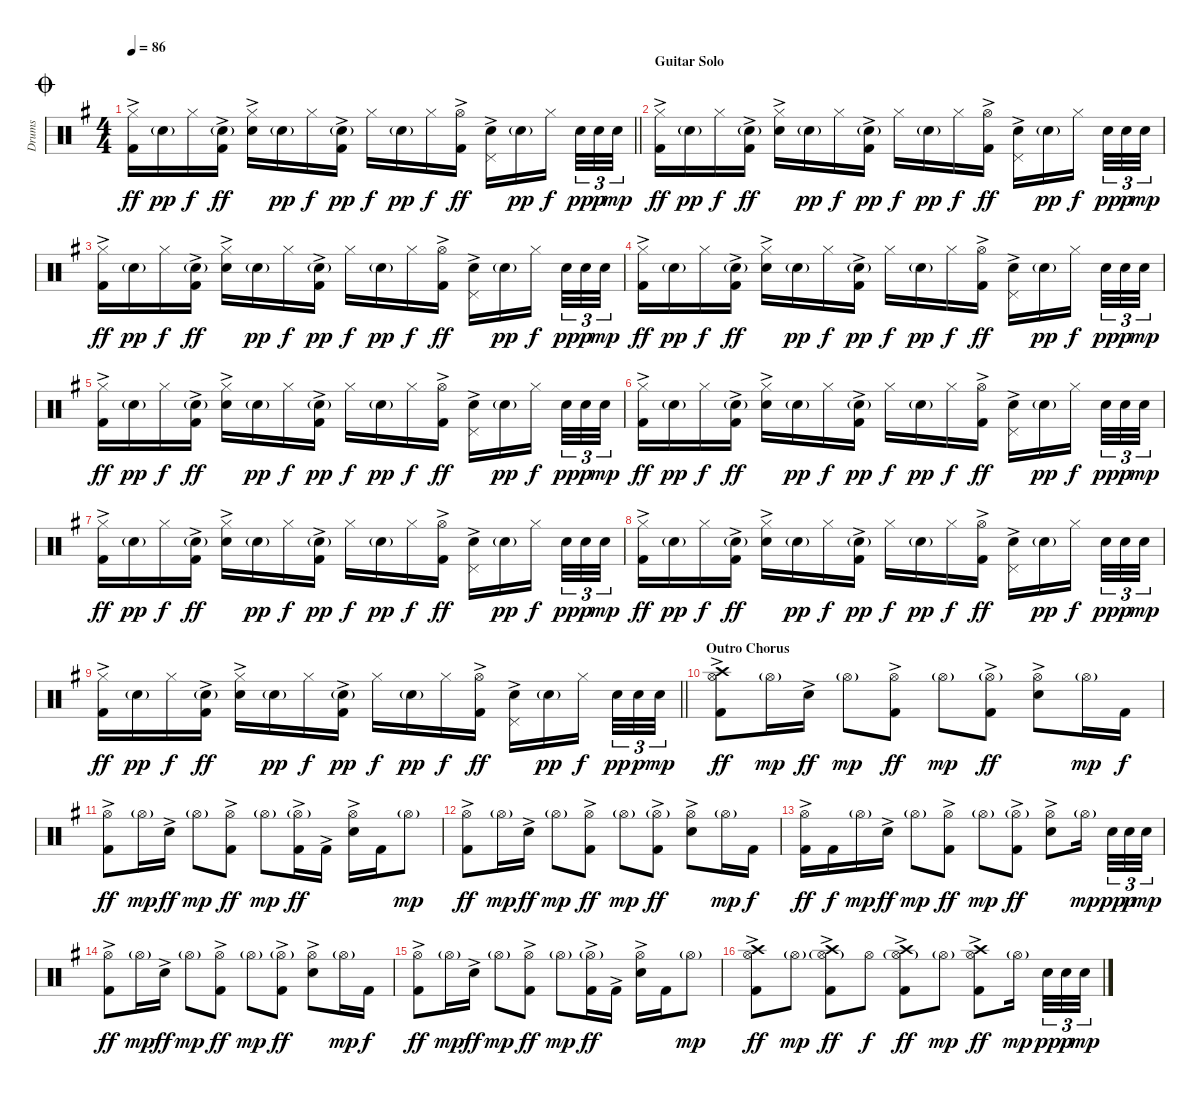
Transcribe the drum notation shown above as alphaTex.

\track ("Drums" "Drums") {instrument percussion}
\staff {score}
\articulation defaults
\ts (4 4)
\jump coda
\tempo 86
\clef neutral
\barLineRight lightlight
\ks g
("Hi-Hat (closed)" "Kick (hit) 2"{ac}).16{dy ff} "Snare (hit) 2"{g}.16{dy pp} "Hi-Hat (closed)".16{dy f} ("Snare (hit) 2"{g} "Kick (hit) 2"{ac}).16{dy ff} ("Hi-Hat (closed)" "Snare (hit) 2"{ac}).16 "Snare (hit) 2"{g}.16{dy pp} "Hi-Hat (closed)".16{dy f} ("Snare (hit) 2"{g} "Kick (hit) 2"{ac}).16{dy pp} "Hi-Hat (closed)".16{dy f} "Snare (hit) 2"{g}.16{dy pp} "Hi-Hat (closed)".16{dy f} ("Hi-Hat (open)" "Kick (hit) 2"{ac}).16{dy ff} ("Pedal Hi-Hat (hit)" "Snare (hit) 2"{ac}).16 "Snare (hit) 2"{g}.16{dy pp} "Hi-Hat (closed)".16{dy f beam splitsecondary} "Snare (hit) 2".32{tu (3 2) dy pp} "Snare (hit) 2".32{tu (3 2) dy p} "Snare (hit) 2".32{tu (3 2) dy mp} |
\section ("" "Guitar Solo")
("Hi-Hat (closed)" "Kick (hit) 2"{ac}).16{dy ff} "Snare (hit) 2"{g}.16{dy pp} "Hi-Hat (closed)".16{dy f} ("Snare (hit) 2"{g} "Kick (hit) 2"{ac}).16{dy ff} ("Hi-Hat (closed)" "Snare (hit) 2"{ac}).16 "Snare (hit) 2"{g}.16{dy pp} "Hi-Hat (closed)".16{dy f} ("Snare (hit) 2"{g} "Kick (hit) 2"{ac}).16{dy pp} "Hi-Hat (closed)".16{dy f} "Snare (hit) 2"{g}.16{dy pp} "Hi-Hat (closed)".16{dy f} ("Hi-Hat (open)" "Kick (hit) 2"{ac}).16{dy ff} ("Pedal Hi-Hat (hit)" "Snare (hit) 2"{ac}).16 "Snare (hit) 2"{g}.16{dy pp} "Hi-Hat (closed)".16{dy f beam splitsecondary} "Snare (hit) 2".32{tu (3 2) dy pp} "Snare (hit) 2".32{tu (3 2) dy p} "Snare (hit) 2".32{tu (3 2) dy mp} |
("Hi-Hat (closed)" "Kick (hit) 2"{ac}).16{dy ff} "Snare (hit) 2"{g}.16{dy pp} "Hi-Hat (closed)".16{dy f} ("Snare (hit) 2"{g} "Kick (hit) 2"{ac}).16{dy ff} ("Hi-Hat (closed)" "Snare (hit) 2"{ac}).16 "Snare (hit) 2"{g}.16{dy pp} "Hi-Hat (closed)".16{dy f} ("Snare (hit) 2"{g} "Kick (hit) 2"{ac}).16{dy pp} "Hi-Hat (closed)".16{dy f} "Snare (hit) 2"{g}.16{dy pp} "Hi-Hat (closed)".16{dy f} ("Hi-Hat (open)" "Kick (hit) 2"{ac}).16{dy ff} ("Pedal Hi-Hat (hit)" "Snare (hit) 2"{ac}).16 "Snare (hit) 2"{g}.16{dy pp} "Hi-Hat (closed)".16{dy f beam splitsecondary} "Snare (hit) 2".32{tu (3 2) dy pp} "Snare (hit) 2".32{tu (3 2) dy p} "Snare (hit) 2".32{tu (3 2) dy mp} |
("Hi-Hat (closed)" "Kick (hit) 2"{ac}).16{dy ff} "Snare (hit) 2"{g}.16{dy pp} "Hi-Hat (closed)".16{dy f} ("Snare (hit) 2"{g} "Kick (hit) 2"{ac}).16{dy ff} ("Hi-Hat (closed)" "Snare (hit) 2"{ac}).16 "Snare (hit) 2"{g}.16{dy pp} "Hi-Hat (closed)".16{dy f} ("Snare (hit) 2"{g} "Kick (hit) 2"{ac}).16{dy pp} "Hi-Hat (closed)".16{dy f} "Snare (hit) 2"{g}.16{dy pp} "Hi-Hat (closed)".16{dy f} ("Hi-Hat (open)" "Kick (hit) 2"{ac}).16{dy ff} ("Pedal Hi-Hat (hit)" "Snare (hit) 2"{ac}).16 "Snare (hit) 2"{g}.16{dy pp} "Hi-Hat (closed)".16{dy f beam splitsecondary} "Snare (hit) 2".32{tu (3 2) dy pp} "Snare (hit) 2".32{tu (3 2) dy p} "Snare (hit) 2".32{tu (3 2) dy mp} |
("Hi-Hat (closed)" "Kick (hit) 2"{ac}).16{dy ff} "Snare (hit) 2"{g}.16{dy pp} "Hi-Hat (closed)".16{dy f} ("Snare (hit) 2"{g} "Kick (hit) 2"{ac}).16{dy ff} ("Hi-Hat (closed)" "Snare (hit) 2"{ac}).16 "Snare (hit) 2"{g}.16{dy pp} "Hi-Hat (closed)".16{dy f} ("Snare (hit) 2"{g} "Kick (hit) 2"{ac}).16{dy pp} "Hi-Hat (closed)".16{dy f} "Snare (hit) 2"{g}.16{dy pp} "Hi-Hat (closed)".16{dy f} ("Hi-Hat (open)" "Kick (hit) 2"{ac}).16{dy ff} ("Pedal Hi-Hat (hit)" "Snare (hit) 2"{ac}).16 "Snare (hit) 2"{g}.16{dy pp} "Hi-Hat (closed)".16{dy f beam splitsecondary} "Snare (hit) 2".32{tu (3 2) dy pp} "Snare (hit) 2".32{tu (3 2) dy p} "Snare (hit) 2".32{tu (3 2) dy mp} |
("Hi-Hat (closed)" "Kick (hit) 2"{ac}).16{dy ff} "Snare (hit) 2"{g}.16{dy pp} "Hi-Hat (closed)".16{dy f} ("Snare (hit) 2"{g} "Kick (hit) 2"{ac}).16{dy ff} ("Hi-Hat (closed)" "Snare (hit) 2"{ac}).16 "Snare (hit) 2"{g}.16{dy pp} "Hi-Hat (closed)".16{dy f} ("Snare (hit) 2"{g} "Kick (hit) 2"{ac}).16{dy pp} "Hi-Hat (closed)".16{dy f} "Snare (hit) 2"{g}.16{dy pp} "Hi-Hat (closed)".16{dy f} ("Hi-Hat (open)" "Kick (hit) 2"{ac}).16{dy ff} ("Pedal Hi-Hat (hit)" "Snare (hit) 2"{ac}).16 "Snare (hit) 2"{g}.16{dy pp} "Hi-Hat (closed)".16{dy f beam splitsecondary} "Snare (hit) 2".32{tu (3 2) dy pp} "Snare (hit) 2".32{tu (3 2) dy p} "Snare (hit) 2".32{tu (3 2) dy mp} |
("Hi-Hat (closed)" "Kick (hit) 2"{ac}).16{dy ff} "Snare (hit) 2"{g}.16{dy pp} "Hi-Hat (closed)".16{dy f} ("Snare (hit) 2"{g} "Kick (hit) 2"{ac}).16{dy ff} ("Hi-Hat (closed)" "Snare (hit) 2"{ac}).16 "Snare (hit) 2"{g}.16{dy pp} "Hi-Hat (closed)".16{dy f} ("Snare (hit) 2"{g} "Kick (hit) 2"{ac}).16{dy pp} "Hi-Hat (closed)".16{dy f} "Snare (hit) 2"{g}.16{dy pp} "Hi-Hat (closed)".16{dy f} ("Hi-Hat (open)" "Kick (hit) 2"{ac}).16{dy ff} ("Pedal Hi-Hat (hit)" "Snare (hit) 2"{ac}).16 "Snare (hit) 2"{g}.16{dy pp} "Hi-Hat (closed)".16{dy f beam splitsecondary} "Snare (hit) 2".32{tu (3 2) dy pp} "Snare (hit) 2".32{tu (3 2) dy p} "Snare (hit) 2".32{tu (3 2) dy mp} |
("Hi-Hat (closed)" "Kick (hit) 2"{ac}).16{dy ff} "Snare (hit) 2"{g}.16{dy pp} "Hi-Hat (closed)".16{dy f} ("Snare (hit) 2"{g} "Kick (hit) 2"{ac}).16{dy ff} ("Hi-Hat (closed)" "Snare (hit) 2"{ac}).16 "Snare (hit) 2"{g}.16{dy pp} "Hi-Hat (closed)".16{dy f} ("Snare (hit) 2"{g} "Kick (hit) 2"{ac}).16{dy pp} "Hi-Hat (closed)".16{dy f} "Snare (hit) 2"{g}.16{dy pp} "Hi-Hat (closed)".16{dy f} ("Hi-Hat (open)" "Kick (hit) 2"{ac}).16{dy ff} ("Pedal Hi-Hat (hit)" "Snare (hit) 2"{ac}).16 "Snare (hit) 2"{g}.16{dy pp} "Hi-Hat (closed)".16{dy f beam splitsecondary} "Snare (hit) 2".32{tu (3 2) dy pp} "Snare (hit) 2".32{tu (3 2) dy p} "Snare (hit) 2".32{tu (3 2) dy mp} |
\barLineRight lightlight
("Hi-Hat (closed)" "Kick (hit) 2"{ac}).16{dy ff} "Snare (hit) 2"{g}.16{dy pp} "Hi-Hat (closed)".16{dy f} ("Snare (hit) 2"{g} "Kick (hit) 2"{ac}).16{dy ff} ("Hi-Hat (closed)" "Snare (hit) 2"{ac}).16 "Snare (hit) 2"{g}.16{dy pp} "Hi-Hat (closed)".16{dy f} ("Snare (hit) 2"{g} "Kick (hit) 2"{ac}).16{dy pp} "Hi-Hat (closed)".16{dy f} "Snare (hit) 2"{g}.16{dy pp} "Hi-Hat (closed)".16{dy f} ("Hi-Hat (open)" "Kick (hit) 2"{ac}).16{dy ff} ("Pedal Hi-Hat (hit)" "Snare (hit) 2"{ac}).16 "Snare (hit) 2"{g}.16{dy pp} "Hi-Hat (closed)".16{dy f beam splitsecondary} "Snare (hit) 2".32{tu (3 2) dy pp} "Snare (hit) 2".32{tu (3 2) dy p} "Snare (hit) 2".32{tu (3 2) dy mp} |
\section ("" "Outro Chorus")
("Hi-Hat (open)" "Crash high (hit)" "Kick (hit) 2"{ac}).8{dy ff} "Hi-Hat (open)"{g}.16{dy mp} "Snare (hit) 2"{ac}.16{dy ff} "Hi-Hat (open)"{g}.8{dy mp} ("Hi-Hat (open)" "Kick (hit) 2"{ac}).8{dy ff} "Hi-Hat (open)"{g}.8{dy mp} ("Hi-Hat (open)"{g} "Kick (hit) 2"{ac}).8{dy ff} ("Hi-Hat (open)" "Snare (hit) 2"{ac}).8 "Hi-Hat (open)"{g}.16{dy mp} "Kick (hit) 2".16{dy f} |
("Hi-Hat (open)" "Kick (hit) 2"{ac}).8{dy ff} "Hi-Hat (open)"{g}.16{dy mp} "Snare (hit) 2"{ac}.16{dy ff} "Hi-Hat (open)"{g}.8{dy mp} ("Hi-Hat (open)" "Kick (hit) 2"{ac}).8{dy ff} "Hi-Hat (open)"{g}.8{dy mp} ("Hi-Hat (open)"{g} "Kick (hit) 2"{ac}).16{dy ff} "Kick (hit) 2"{ac}.16 ("Hi-Hat (open)" "Snare (hit) 2"{ac}).16 "Kick (hit) 2".16 "Hi-Hat (open)"{g}.8{dy mp} |
("Hi-Hat (open)" "Kick (hit) 2"{ac}).8{dy ff} "Hi-Hat (open)"{g}.16{dy mp} "Snare (hit) 2"{ac}.16{dy ff} "Hi-Hat (open)"{g}.8{dy mp} ("Hi-Hat (open)" "Kick (hit) 2"{ac}).8{dy ff} "Hi-Hat (open)"{g}.8{dy mp} ("Hi-Hat (open)"{g} "Kick (hit) 2"{ac}).8{dy ff} ("Hi-Hat (open)" "Snare (hit) 2"{ac}).8 "Hi-Hat (open)"{g}.16{dy mp} "Kick (hit) 2".16{dy f} |
("Hi-Hat (open)" "Kick (hit) 2"{ac}).16{dy ff} "Kick (hit) 2".16{dy f} "Hi-Hat (open)"{g}.16{dy mp} "Snare (hit) 2"{ac}.16{dy ff} "Hi-Hat (open)"{g}.8{dy mp} ("Hi-Hat (open)" "Kick (hit) 2"{ac}).8{dy ff} "Hi-Hat (open)"{g}.8{dy mp} ("Hi-Hat (open)"{g} "Kick (hit) 2"{ac}).8{dy ff} ("Hi-Hat (open)" "Snare (hit) 2"{ac}).8 "Hi-Hat (open)"{g}.16{dy mp beam splitsecondary} "Snare (hit) 2".32{tu (3 2) dy pp} "Snare (hit) 2".32{tu (3 2) dy p} "Snare (hit) 2".32{tu (3 2) dy mp} |
("Hi-Hat (open)" "Kick (hit) 2"{ac}).8{dy ff} "Hi-Hat (open)"{g}.16{dy mp} "Snare (hit) 2"{ac}.16{dy ff} "Hi-Hat (open)"{g}.8{dy mp} ("Hi-Hat (open)" "Kick (hit) 2"{ac}).8{dy ff} "Hi-Hat (open)"{g}.8{dy mp} ("Hi-Hat (open)"{g} "Kick (hit) 2"{ac}).8{dy ff} ("Hi-Hat (open)" "Snare (hit) 2"{ac}).8 "Hi-Hat (open)"{g}.16{dy mp} "Kick (hit) 2".16{dy f} |
("Hi-Hat (open)" "Kick (hit) 2"{ac}).8{dy ff} "Hi-Hat (open)"{g}.16{dy mp} "Snare (hit) 2"{ac}.16{dy ff} "Hi-Hat (open)"{g}.8{dy mp} ("Hi-Hat (open)" "Kick (hit) 2"{ac}).8{dy ff} "Hi-Hat (open)"{g}.8{dy mp} ("Hi-Hat (open)"{g} "Kick (hit) 2"{ac}).16{dy ff} "Kick (hit) 2"{ac}.16 ("Hi-Hat (open)" "Snare (hit) 2"{ac}).16 "Kick (hit) 2".16 "Hi-Hat (open)"{g}.8{dy mp} |
("Hi-Hat (open)" "Crash high (hit)" "Kick (hit) 2"{ac}).8{dy ff} "Hi-Hat (open)"{g}.8{dy mp} ("Hi-Hat (open)"{g} "Crash high (hit)" "Kick (hit) 2"{ac}).8{dy ff} "Hi-Hat (open)".8{dy f} ("Hi-Hat (open)"{g} "Crash high (hit)" "Kick (hit) 2"{ac}).8{dy ff} "Hi-Hat (open)"{g}.8{dy mp} ("Hi-Hat (open)" "Crash high (hit)" "Kick (hit) 2"{ac}).8{dy ff} "Hi-Hat (open)"{g}.16{dy mp beam splitsecondary} "Snare (hit) 2".32{tu (3 2) dy pp} "Snare (hit) 2".32{tu (3 2) dy p} "Snare (hit) 2".32{tu (3 2) dy mp}
